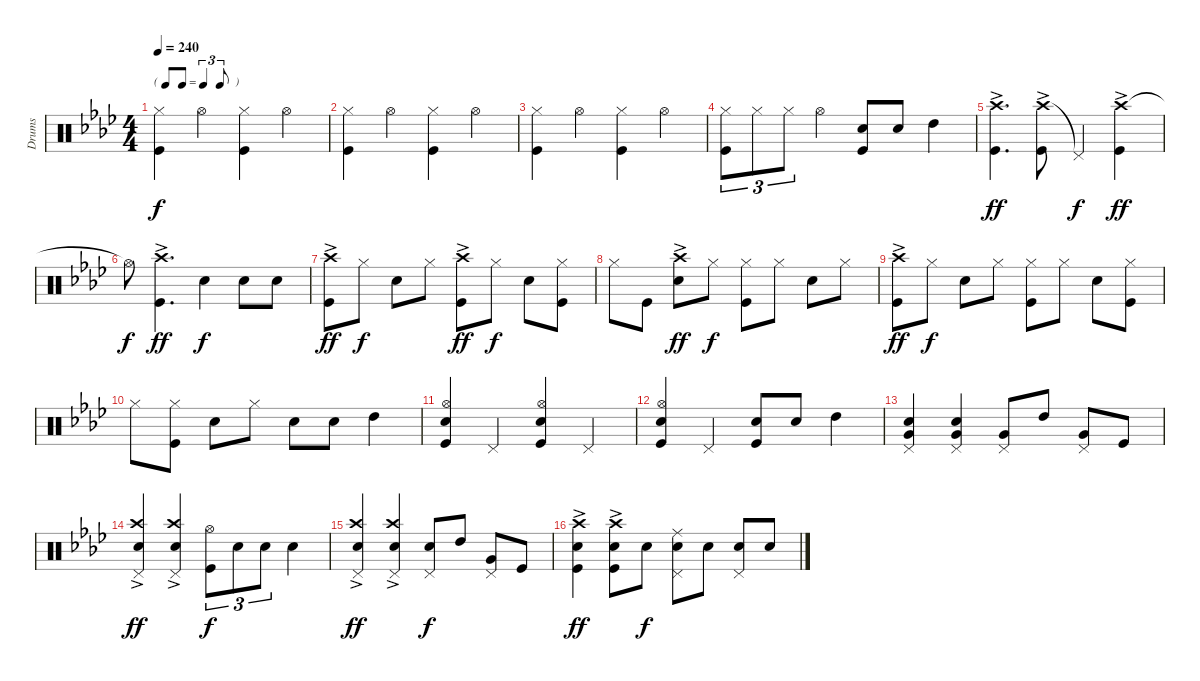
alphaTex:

\track ("Drums" "Drums") {instrument percussion}
\staff {score}
\articulation defaults
\ts (4 4)
\tf triplet8th
\tempo 240
\clef neutral
\ks ab
("Hi-Hat (closed)" "Kick (hit)").4{dy f} "Hi-Hat (open)".4 ("Hi-Hat (closed)" "Kick (hit)").4 "Hi-Hat (open)".4 |
("Hi-Hat (closed)" "Kick (hit)").4 "Hi-Hat (open)".4 ("Hi-Hat (closed)" "Kick (hit)").4 "Hi-Hat (open)".4 |
("Hi-Hat (closed)" "Kick (hit)").4 "Hi-Hat (open)".4 ("Hi-Hat (closed)" "Kick (hit)").4 "Hi-Hat (open)".4 |
("Kick (hit)" "Hi-Hat (closed)").8{tu (3 2)} "Hi-Hat (closed)".8{tu (3 2)} "Hi-Hat (closed)".8{tu (3 2)} "Hi-Hat (open)".4 ("Snare (hit) 2" "Kick (hit)").8 "Snare (hit) 2".8 "High Tom (hit)".4 |
("Crash high (hit)"{ac} "Kick (hit)").4{d dy ff} ("Crash high (hit)"{ac} "Kick (hit)").8 "Pedal Hi-Hat (hit)"{t}.4{dy f} ("Crash high (hit)"{ac} "Kick (hit)").4{dy ff} |
"Hi-Hat (open)"{t}.8{dy f} ("Crash high (hit)"{ac} "Kick (hit)").4{d dy ff} "Snare (hit) 2".4{dy f} "Snare (hit) 2".8 "Snare (hit) 2".8 |
("Crash high (hit)"{ac} "Kick (hit)").8{dy ff} "Hi-Hat (closed)".8{dy f} "Snare (hit) 2".8 "Hi-Hat (closed)".8 ("Crash high (hit)"{ac} "Kick (hit)").8{dy ff} "Hi-Hat (closed)".8{dy f} "Snare (hit) 2".8 ("Hi-Hat (closed)" "Kick (hit)").8 |
"Hi-Hat (closed)".8 "Kick (hit)".8 ("Crash high (hit)"{ac} "Snare (hit) 2").8{dy ff} "Hi-Hat (closed)".8{dy f} ("Hi-Hat (closed)" "Kick (hit)").8 "Hi-Hat (closed)".8 "Snare (hit) 2".8 "Hi-Hat (closed)".8 |
("Crash high (hit)"{ac} "Kick (hit)").8{dy ff} "Hi-Hat (closed)".8{dy f} "Snare (hit) 2".8 "Hi-Hat (closed)".8 ("Hi-Hat (closed)" "Kick (hit)").8 "Hi-Hat (closed)".8 "Snare (hit) 2".8 ("Hi-Hat (closed)" "Kick (hit)").8 |
"Hi-Hat (closed)".8 ("Hi-Hat (closed)" "Kick (hit)").8 "Snare (hit) 2".8 "Hi-Hat (closed)".8 "Snare (hit) 2".8 "Snare (hit) 2".8 "High Tom (hit)".4 |
("Hi-Hat (open)" "Snare (hit) 2" "Kick (hit)").4 "Pedal Hi-Hat (hit)".4 ("Hi-Hat (open)" "Snare (hit) 2" "Kick (hit)").4 "Pedal Hi-Hat (hit)".4 |
("Hi-Hat (open)" "Snare (hit) 2" "Kick (hit)").4 "Pedal Hi-Hat (hit)".4 ("Kick (hit)" "Snare (hit) 2").8 "Snare (hit) 2".8 "High Tom (hit)".4 |
("Snare (hit) 2" "Very Low Tom (hit)" "Pedal Hi-Hat (hit)").4 ("Snare (hit) 2" "Very Low Tom (hit)" "Pedal Hi-Hat (hit)").4 ("Very Low Tom (hit)" "Pedal Hi-Hat (hit)").8 "High Tom (hit)".8 ("Very Low Tom (hit)" "Pedal Hi-Hat (hit)").8 "Kick (hit)".8 |
("Crash high (hit)"{ac} "Snare (hit) 2" "Pedal Hi-Hat (hit)").4{dy ff} ("Crash high (hit)"{ac} "Snare (hit) 2" "Pedal Hi-Hat (hit)").4 ("Hi-Hat (open)" "Kick (hit)").8{tu (3 2) dy f} "Snare (hit) 2".8{tu (3 2)} "Snare (hit) 2".8{tu (3 2)} "Snare (hit) 2".4 |
("Crash high (hit)"{ac} "Snare (hit) 2" "Pedal Hi-Hat (hit)").4{dy ff} ("Crash high (hit)"{ac} "Snare (hit) 2" "Pedal Hi-Hat (hit)").4 ("Snare (hit) 2" "Pedal Hi-Hat (hit)").8{dy f} "High Tom (hit)".8 ("Very Low Tom (hit)" "Pedal Hi-Hat (hit)").8 "Kick (hit)".8 |
("Crash high (hit)"{ac} "Snare (hit) 2" "Kick (hit)").4{dy ff} ("Crash high (hit)"{ac} "Snare (hit) 2" "Kick (hit)").8 "Snare (hit) 2".8{dy f} ("Ride (middle)" "Snare (hit) 2" "Pedal Hi-Hat (hit)").8 "Snare (hit) 2".8 ("Snare (hit) 2" "Pedal Hi-Hat (hit)").8 "Snare (hit) 2".8
